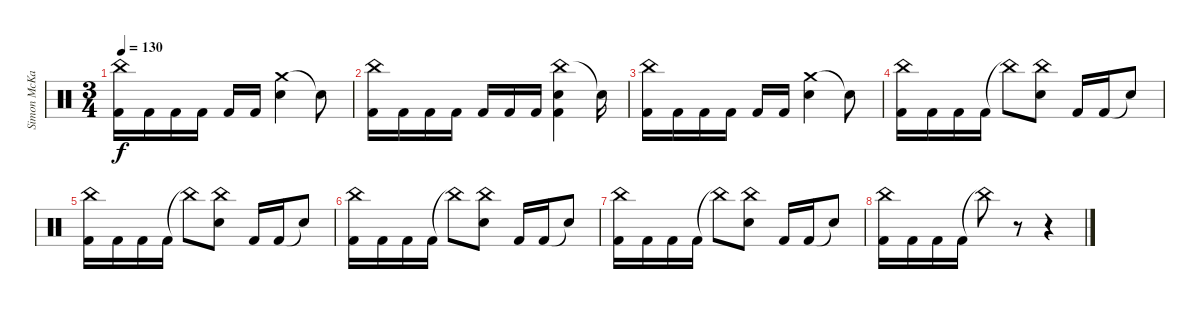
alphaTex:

\track ("Simon McKay" "Simon McKa") {instrument percussion}
\staff {score}
\articulation defaults
\ts (3 4)
\tempo 130
\clef neutral
\ks c
("China (hit)" "Kick (hit) 2").16{dy f} "Kick (hit) 2".16 "Kick (hit) 2".16 "Kick (hit) 2".16 "Kick (hit) 2".16 "Kick (hit) 2".16 ("Crash medium (hit)" "Snare (hit) 2").4 "Snare (hit)"{t}.8 |
("China (hit)" "Kick (hit) 2").16 "Kick (hit) 2".16 "Kick (hit) 2".16 "Kick (hit) 2".16 "Kick (hit) 2".16 "Kick (hit) 2".16 "Kick (hit) 2".16 ("China (hit)" "Snare (hit) 2" "Kick (hit) 2").4 "Snare (hit)"{t}.16 |
("China (hit)" "Kick (hit) 2").16 "Kick (hit) 2".16 "Kick (hit) 2".16 "Kick (hit) 2".16 "Kick (hit) 2".16 "Kick (hit) 2".16 ("Crash medium (hit)" "Snare (hit) 2").4 "Snare (hit)"{t}.8 |
("China (hit)" "Kick (hit) 2").16 "Kick (hit) 2".16 "Kick (hit) 2".16 "Kick (hit) 2".16 "China (hit)"{t}.8 ("China (hit)" "Snare (hit) 2").8 "Kick (hit) 2".16 "Kick (hit) 2".16 "Snare (hit)"{t}.8 |
("China (hit)" "Kick (hit) 2").16 "Kick (hit) 2".16 "Kick (hit) 2".16 "Kick (hit) 2".16 "China (hit)"{t}.8 ("China (hit)" "Snare (hit) 2").8 "Kick (hit) 2".16 "Kick (hit) 2".16 "Snare (hit)"{t}.8 |
("China (hit)" "Kick (hit) 2").16 "Kick (hit) 2".16 "Kick (hit) 2".16 "Kick (hit) 2".16 "China (hit)"{t}.8 ("China (hit)" "Snare (hit) 2").8 "Kick (hit) 2".16 "Kick (hit) 2".16 "Snare (hit)"{t}.8 |
("China (hit)" "Kick (hit) 2").16 "Kick (hit) 2".16 "Kick (hit) 2".16 "Kick (hit) 2".16 "China (hit)"{t}.8 ("China (hit)" "Snare (hit) 2").8 "Kick (hit) 2".16 "Kick (hit) 2".16 "Snare (hit)"{t}.8 |
("China (hit)" "Kick (hit) 2").16 "Kick (hit) 2".16 "Kick (hit) 2".16 "Kick (hit) 2".16 "China (hit)"{t}.8 r.8 r.4
